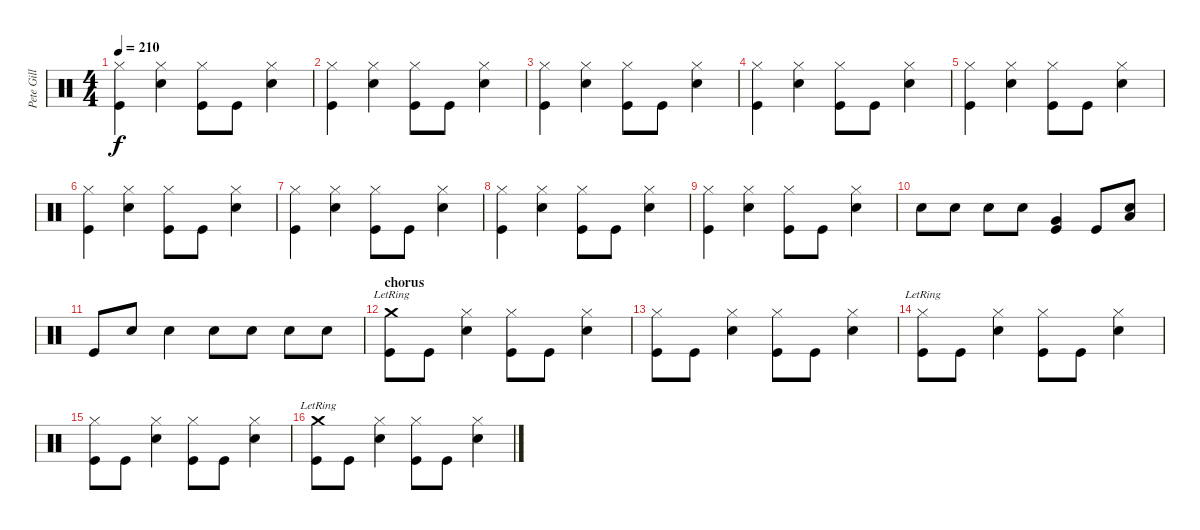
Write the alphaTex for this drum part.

\track ("Pete Gill" "Pete Gill") {instrument percussion}
\staff {score}
\articulation defaults
\ts (4 4)
\tempo 210
\clef neutral
\ks c
("Hi-Hat (closed)" "Kick (hit)").4{dy f} ("Hi-Hat (closed)" "Snare (hit) 2").4 ("Hi-Hat (closed)" "Kick (hit)").8 "Kick (hit)".8 ("Hi-Hat (closed)" "Snare (hit) 2").4 |
("Hi-Hat (closed)" "Kick (hit)").4 ("Hi-Hat (closed)" "Snare (hit) 2").4 ("Hi-Hat (closed)" "Kick (hit)").8 "Kick (hit)".8 ("Hi-Hat (closed)" "Snare (hit) 2").4 |
("Hi-Hat (closed)" "Kick (hit)").4 ("Hi-Hat (closed)" "Snare (hit) 2").4 ("Hi-Hat (closed)" "Kick (hit)").8 "Kick (hit)".8 ("Hi-Hat (closed)" "Snare (hit) 2").4 |
("Hi-Hat (closed)" "Kick (hit)").4 ("Hi-Hat (closed)" "Snare (hit) 2").4 ("Hi-Hat (closed)" "Kick (hit)").8 "Kick (hit)".8 ("Hi-Hat (closed)" "Snare (hit) 2").4 |
("Hi-Hat (closed)" "Kick (hit)").4 ("Hi-Hat (closed)" "Snare (hit) 2").4 ("Hi-Hat (closed)" "Kick (hit)").8 "Kick (hit)".8 ("Hi-Hat (closed)" "Snare (hit) 2").4 |
("Hi-Hat (closed)" "Kick (hit)").4 ("Hi-Hat (closed)" "Snare (hit) 2").4 ("Hi-Hat (closed)" "Kick (hit)").8 "Kick (hit)".8 ("Hi-Hat (closed)" "Snare (hit) 2").4 |
("Hi-Hat (closed)" "Kick (hit)").4 ("Hi-Hat (closed)" "Snare (hit) 2").4 ("Hi-Hat (closed)" "Kick (hit)").8 "Kick (hit)".8 ("Hi-Hat (closed)" "Snare (hit) 2").4 |
("Hi-Hat (closed)" "Kick (hit)").4 ("Hi-Hat (closed)" "Snare (hit) 2").4 ("Hi-Hat (closed)" "Kick (hit)").8 "Kick (hit)".8 ("Hi-Hat (closed)" "Snare (hit) 2").4 |
("Hi-Hat (closed)" "Kick (hit)").4 ("Hi-Hat (closed)" "Snare (hit) 2").4 ("Hi-Hat (closed)" "Kick (hit)").8 "Kick (hit)".8 ("Hi-Hat (closed)" "Snare (hit) 2").4 |
"Snare (hit) 2".8 "Snare (hit) 2".8 "Snare (hit) 2".8 "Snare (hit) 2".8 ("Very Low Tom (hit)" "Kick (hit)").4 "Kick (hit)".8 ("Low Floor Tom (hit)" "Snare (hit) 2").8 |
"Kick (hit)".8 "Snare (hit) 2".8 "Snare (hit) 2".4 "Snare (hit) 2".8 "Snare (hit) 2".8 "Snare (hit) 2".8 "Snare (hit) 2".8 |
\section ("" "chorus")
("Crash medium (hit)"{lr} "Kick (hit)").8 "Kick (hit)".8 ("Hi-Hat (closed)" "Snare (hit) 2").4 ("Hi-Hat (closed)" "Kick (hit)").8 "Kick (hit)".8 ("Hi-Hat (closed)" "Snare (hit) 2").4 |
("Hi-Hat (closed)" "Kick (hit)").8 "Kick (hit)".8 ("Hi-Hat (closed)" "Snare (hit) 2").4 ("Hi-Hat (closed)" "Kick (hit)").8 "Kick (hit)".8 ("Hi-Hat (closed)" "Snare (hit) 2").4 |
("Hi-Hat (closed)"{lr} "Kick (hit)").8 "Kick (hit)".8 ("Hi-Hat (closed)" "Snare (hit) 2").4 ("Hi-Hat (closed)" "Kick (hit)").8 "Kick (hit)".8 ("Hi-Hat (closed)" "Snare (hit) 2").4 |
("Hi-Hat (closed)" "Kick (hit)").8 "Kick (hit)".8 ("Hi-Hat (closed)" "Snare (hit) 2").4 ("Hi-Hat (closed)" "Kick (hit)").8 "Kick (hit)".8 ("Hi-Hat (closed)" "Snare (hit) 2").4 |
("Crash medium (hit)"{lr} "Kick (hit)").8 "Kick (hit)".8 ("Hi-Hat (closed)" "Snare (hit) 2").4 ("Hi-Hat (closed)" "Kick (hit)").8 "Kick (hit)".8 ("Hi-Hat (closed)" "Snare (hit) 2").4
